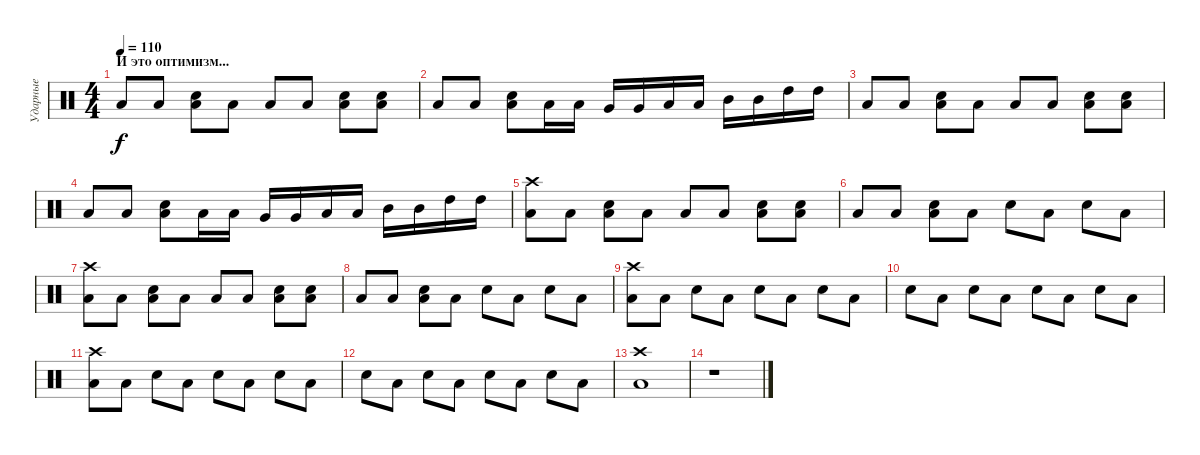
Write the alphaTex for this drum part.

\track ("Ударные" "Ударные") {instrument percussion}
\staff {score}
\articulation defaults
\ts (4 4)
\section ("" "И это оптимизм...")
\tempo 110
\clef neutral
\ks c "Low Floor Tom (hit)".8{dy f} "Low Floor Tom (hit)".8
("Snare (hit) 2" "Low Floor Tom (hit)").8 "Low Floor Tom (hit)".8 "Low Floor Tom (hit)".8 "Low Floor Tom (hit)".8 ("Snare (hit) 2" "Low Floor Tom (hit)").8 ("Snare (hit) 2" "Low Floor Tom (hit)").8 |
"Low Floor Tom (hit)".8 "Low Floor Tom (hit)".8 ("Snare (hit) 2" "Low Floor Tom (hit)").8 "Low Floor Tom (hit)".16 "Low Floor Tom (hit)".16 "Very Low Tom (hit)".16 "Very Low Tom (hit)".16 "Low Tom (hit)".16 "Low Tom (hit)".16 "Mid Tom (hit)".16 "Mid Tom (hit)".16 "High Tom (hit)".16 "High Tom (hit)".16 |
"Low Floor Tom (hit)".8 "Low Floor Tom (hit)".8 ("Snare (hit) 2" "Low Floor Tom (hit)").8 "Low Floor Tom (hit)".8 "Low Floor Tom (hit)".8 "Low Floor Tom (hit)".8 ("Snare (hit) 2" "Low Floor Tom (hit)").8 ("Snare (hit) 2" "Low Floor Tom (hit)").8 |
"Low Floor Tom (hit)".8 "Low Floor Tom (hit)".8 ("Snare (hit) 2" "Low Floor Tom (hit)").8 "Low Floor Tom (hit)".16 "Low Floor Tom (hit)".16 "Very Low Tom (hit)".16 "Very Low Tom (hit)".16 "Low Tom (hit)".16 "Low Tom (hit)".16 "Mid Tom (hit)".16 "Mid Tom (hit)".16 "High Tom (hit)".16 "High Tom (hit)".16 |
("Crash high (hit)" "Low Floor Tom (hit)").8 "Low Floor Tom (hit)".8 ("Snare (hit) 2" "Low Floor Tom (hit)").8 "Low Floor Tom (hit)".8 "Low Floor Tom (hit)".8 "Low Floor Tom (hit)".8 ("Snare (hit) 2" "Low Floor Tom (hit)").8 ("Snare (hit) 2" "Low Floor Tom (hit)").8 |
"Low Floor Tom (hit)".8 "Low Floor Tom (hit)".8 ("Snare (hit) 2" "Low Floor Tom (hit)").8 "Low Floor Tom (hit)".8 "Snare (hit) 2".8 "Low Floor Tom (hit)".8 "Snare (hit) 2".8 "Low Floor Tom (hit)".8 |
("Crash high (hit)" "Low Floor Tom (hit)").8 "Low Floor Tom (hit)".8 ("Snare (hit) 2" "Low Floor Tom (hit)").8 "Low Floor Tom (hit)".8 "Low Floor Tom (hit)".8 "Low Floor Tom (hit)".8 ("Snare (hit) 2" "Low Floor Tom (hit)").8 ("Snare (hit) 2" "Low Floor Tom (hit)").8 |
"Low Floor Tom (hit)".8 "Low Floor Tom (hit)".8 ("Snare (hit) 2" "Low Floor Tom (hit)").8 "Low Floor Tom (hit)".8 "Snare (hit) 2".8 "Low Floor Tom (hit)".8 "Snare (hit) 2".8 "Low Floor Tom (hit)".8 |
("Crash high (hit)" "Low Floor Tom (hit)").8 "Low Floor Tom (hit)".8 "Snare (hit) 2".8 "Low Floor Tom (hit)".8 "Snare (hit) 2".8 "Low Floor Tom (hit)".8 "Snare (hit) 2".8 "Low Floor Tom (hit)".8 |
"Snare (hit) 2".8 "Low Floor Tom (hit)".8 "Snare (hit) 2".8 "Low Floor Tom (hit)".8 "Snare (hit) 2".8 "Low Floor Tom (hit)".8 "Snare (hit) 2".8 "Low Floor Tom (hit)".8 |
("Crash high (hit)" "Low Floor Tom (hit)").8 "Low Floor Tom (hit)".8 "Snare (hit) 2".8 "Low Floor Tom (hit)".8 "Snare (hit) 2".8 "Low Floor Tom (hit)".8 "Snare (hit) 2".8 "Low Floor Tom (hit)".8 |
"Snare (hit) 2".8 "Low Floor Tom (hit)".8 "Snare (hit) 2".8 "Low Floor Tom (hit)".8 "Snare (hit) 2".8 "Low Floor Tom (hit)".8 "Snare (hit) 2".8 "Low Floor Tom (hit)".8 |
("Crash high (hit)" "Low Floor Tom (hit)").1 |
r.1
